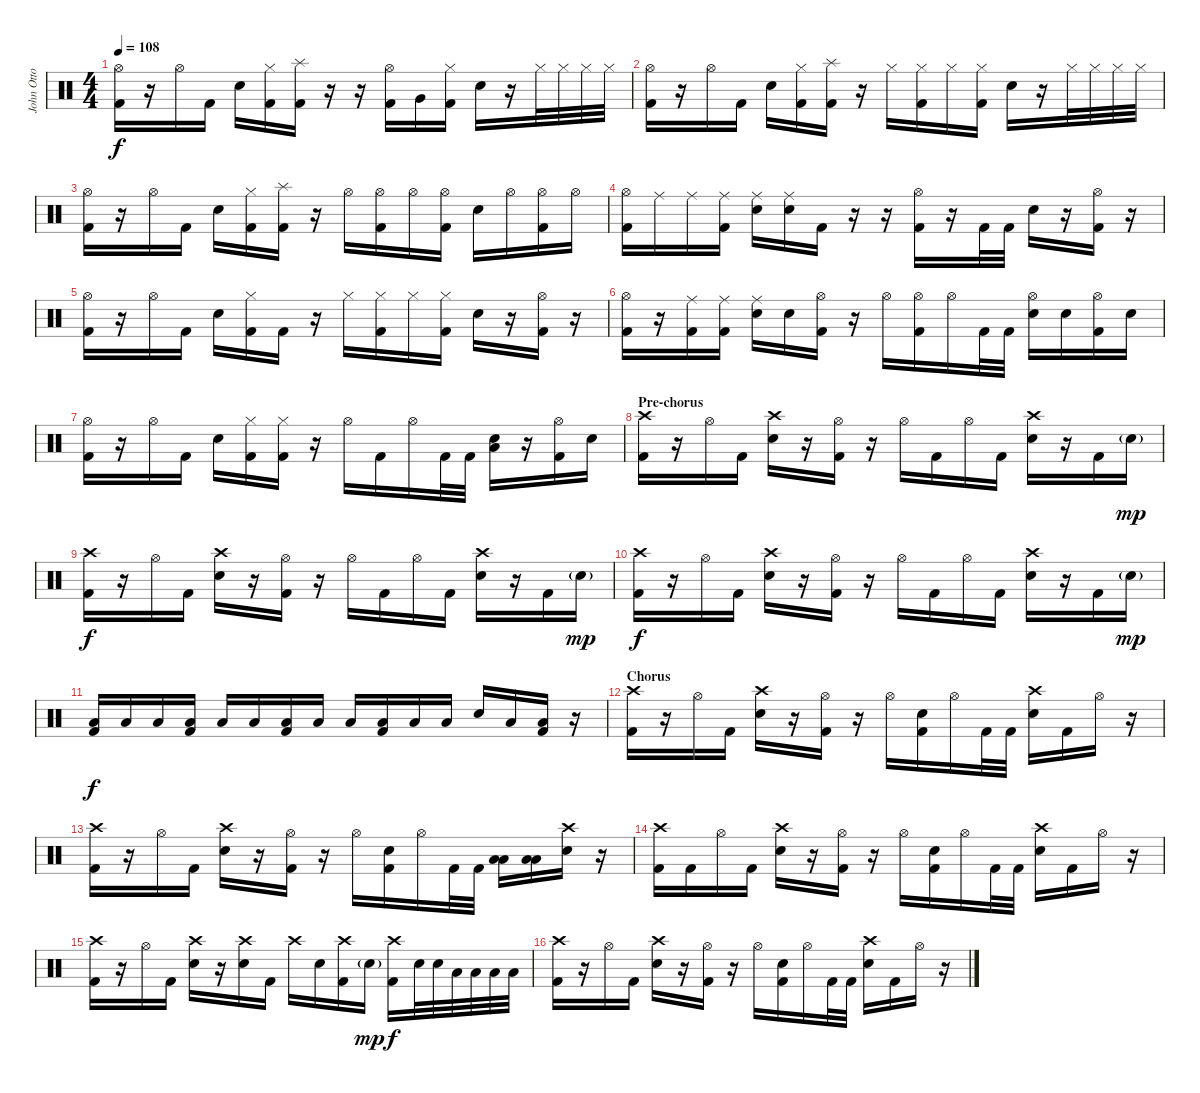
\track ("John Otto" "John Otto") {instrument percussion}
\staff {score}
\articulation defaults
\ts (4 4)
\tempo 108
\clef neutral
\ks c
("Hi-Hat (open)" "Kick (hit) 2").16{dy f} r.16 "Hi-Hat (open)".16 "Kick (hit) 2".16 "Snare (hit) 2".16 ("Hi-Hat (closed)" "Kick (hit) 2").16 ("Splash (hit)" "Kick (hit) 2").16 r.16 r.16 ("Hi-Hat (open)" "Kick (hit) 2").16 "Very Low Tom (hit)".16 ("Hi-Hat (closed)" "Kick (hit) 2").16 "Snare (hit) 2".16 r.16 "Hi-Hat (closed)".32 "Hi-Hat (closed)".32 "Hi-Hat (closed)".32 "Hi-Hat (closed)".32 |
("Hi-Hat (open)" "Kick (hit) 2").16 r.16 "Hi-Hat (open)".16 "Kick (hit) 2".16 "Snare (hit) 2".16 ("Hi-Hat (closed)" "Kick (hit) 2").16 ("Splash (hit)" "Kick (hit) 2").16 r.16 "Hi-Hat (closed)".16 ("Hi-Hat (closed)" "Kick (hit) 2").16 "Hi-Hat (closed)".16 ("Hi-Hat (closed)" "Kick (hit) 2").16 "Snare (hit) 2".16 r.16 "Hi-Hat (closed)".32 "Hi-Hat (closed)".32 "Hi-Hat (closed)".32 "Hi-Hat (closed)".32 |
("Hi-Hat (open)" "Kick (hit) 2").16 r.16 "Hi-Hat (open)".16 "Kick (hit) 2".16 "Snare (hit) 2".16 ("Hi-Hat (closed)" "Kick (hit) 2").16 ("Splash (hit)" "Kick (hit) 2").16 r.16 "Hi-Hat (open)".16 ("Hi-Hat (open)" "Kick (hit) 2").16 "Hi-Hat (open)".16 ("Hi-Hat (open)" "Kick (hit) 2").16 "Snare (hit) 2".16 "Hi-Hat (open)".16 ("Hi-Hat (open)" "Kick (hit) 2").16 "Hi-Hat (open)".16 |
("Hi-Hat (open)" "Kick (hit) 2").16 "Ride (middle)".16 "Ride (middle)".16 ("Ride (middle)" "Kick (hit) 2").16 ("Ride (middle)" "Snare (hit) 2").16 ("Ride (middle)" "Snare (hit) 2").16 "Kick (hit) 2".16 r.16 r.16 ("Hi-Hat (open)" "Kick (hit) 2").16 r.16 "Kick (hit) 2".32 "Kick (hit) 2".32 "Snare (hit) 2".16 r.16 ("Hi-Hat (open)" "Kick (hit) 2").16 r.16 |
("Hi-Hat (open)" "Kick (hit) 2").16 r.16 "Hi-Hat (open)".16 "Kick (hit) 2".16 "Snare (hit) 2".16 ("Hi-Hat (closed)" "Kick (hit) 2").16 "Kick (hit) 2".16 r.16 "Hi-Hat (closed)".16 ("Hi-Hat (closed)" "Kick (hit) 2").16 "Hi-Hat (closed)".16 ("Hi-Hat (closed)" "Kick (hit) 2").16 "Snare (hit) 2".16 r.16 ("Hi-Hat (open)" "Kick (hit) 2").16 r.16 |
("Hi-Hat (open)" "Kick (hit) 2").16 r.16 ("Ride (middle)" "Kick (hit) 2").16 ("Ride (middle)" "Kick (hit) 2").16 ("Ride (middle)" "Snare (hit) 2").16 "Snare (hit) 2".16 ("Hi-Hat (open)" "Kick (hit) 2").16 r.16 "Hi-Hat (open)".16 ("Hi-Hat (open)" "Kick (hit) 2").16 "Hi-Hat (open)".16 "Kick (hit) 2".32 "Kick (hit) 2".32 ("Hi-Hat (open)" "Snare (hit) 2").16 "Snare (hit) 2".16 ("Hi-Hat (open)" "Kick (hit) 2").16 "Snare (hit) 2".16 |
("Hi-Hat (open)" "Kick (hit) 2").16 r.16 "Hi-Hat (open)".16 "Kick (hit) 2".16 "Snare (hit) 2".16 ("Hi-Hat (closed)" "Kick (hit) 2").16 ("Hi-Hat (closed)" "Kick (hit) 2").16 r.16 "Hi-Hat (open)".16 "Kick (hit) 2".16 "Hi-Hat (open)".16 "Kick (hit) 2".32 "Kick (hit) 2".32 ("Snare (hit) 2" "Low Tom (hit)").16 r.16 ("Hi-Hat (open)" "Kick (hit) 2").16 "Snare (hit) 2".16 |
\section ("" "Pre-chorus")
("Crash high (hit)" "Kick (hit) 2").16 r.16 "Hi-Hat (open)".16 "Kick (hit) 2".16 ("Crash high (hit)" "Snare (hit) 2").16 r.16 ("Hi-Hat (open)" "Kick (hit) 2").16 r.16 "Hi-Hat (open)".16 "Kick (hit) 2".16 "Hi-Hat (open)".16 "Kick (hit) 2".16 ("Crash high (hit)" "Snare (hit) 2").16 r.16 "Kick (hit) 2".16 "Snare (hit) 2"{g}.16{dy mp} |
("Crash high (hit)" "Kick (hit) 2").16{dy f} r.16 "Hi-Hat (open)".16 "Kick (hit) 2".16 ("Crash high (hit)" "Snare (hit) 2").16 r.16 ("Hi-Hat (open)" "Kick (hit) 2").16 r.16 "Hi-Hat (open)".16 "Kick (hit) 2".16 "Hi-Hat (open)".16 "Kick (hit) 2".16 ("Crash high (hit)" "Snare (hit) 2").16 r.16 "Kick (hit) 2".16 "Snare (hit) 2"{g}.16{dy mp} |
("Crash high (hit)" "Kick (hit) 2").16{dy f} r.16 "Hi-Hat (open)".16 "Kick (hit) 2".16 ("Crash high (hit)" "Snare (hit) 2").16 r.16 ("Hi-Hat (open)" "Kick (hit) 2").16 r.16 "Hi-Hat (open)".16 "Kick (hit) 2".16 "Hi-Hat (open)".16 "Kick (hit) 2".16 ("Crash high (hit)" "Snare (hit) 2").16 r.16 "Kick (hit) 2".16 "Snare (hit) 2"{g}.16{dy mp} |
("Low Floor Tom (hit)" "Kick (hit) 2").16{dy f} "Low Tom (hit)".16 "Low Tom (hit)".16 ("Low Floor Tom (hit)" "Kick (hit) 2").16 "Low Tom (hit)".16 "Low Tom (hit)".16 ("Low Floor Tom (hit)" "Kick (hit) 2").16 "Low Tom (hit)".16 "Low Tom (hit)".16 ("Low Floor Tom (hit)" "Kick (hit) 2").16 "Low Tom (hit)".16 "Low Tom (hit)".16 "Snare (hit) 2".16 "Low Floor Tom (hit)".16 ("Low Tom (hit)" "Kick (hit) 2").16 r.16 |
\section ("" "Chorus")
("Crash high (hit)" "Kick (hit) 2").16 r.16 "Hi-Hat (open)".16 "Kick (hit) 2".16 ("Crash high (hit)" "Snare (hit) 2").16 r.16 ("Hi-Hat (open)" "Kick (hit) 2").16 r.16 "Hi-Hat (open)".16 ("Snare (hit) 2" "Kick (hit) 2").16 "Hi-Hat (open)".16 "Kick (hit) 2".32 "Kick (hit) 2".32 ("Crash high (hit)" "Snare (hit) 2").16 "Kick (hit) 2".16 "Hi-Hat (open)".16 r.16 |
("Crash high (hit)" "Kick (hit) 2").16 r.16 "Hi-Hat (open)".16 "Kick (hit) 2".16 ("Crash high (hit)" "Snare (hit) 2").16 r.16 ("Hi-Hat (open)" "Kick (hit) 2").16 r.16 "Hi-Hat (open)".16 ("Snare (hit) 2" "Kick (hit) 2").16 "Hi-Hat (open)".16 "Kick (hit) 2".32 "Kick (hit) 2".32 ("Low Floor Tom (hit)" "Low Tom (hit)").16 ("Low Floor Tom (hit)" "Low Tom (hit)").16 ("Crash high (hit)" "Snare (hit) 2").16 r.16 |
("Crash high (hit)" "Kick (hit) 2").16 "Kick (hit) 2".16 "Hi-Hat (open)".16 "Kick (hit) 2".16 ("Crash high (hit)" "Snare (hit) 2").16 r.16 ("Hi-Hat (open)" "Kick (hit) 2").16 r.16 "Hi-Hat (open)".16 ("Snare (hit) 2" "Kick (hit) 2").16 "Hi-Hat (open)".16 "Kick (hit) 2".32 "Kick (hit) 2".32 ("Crash high (hit)" "Snare (hit) 2").16 "Kick (hit) 2".16 "Hi-Hat (open)".16 r.16 |
("Crash high (hit)" "Kick (hit) 2").16 r.16 "Hi-Hat (open)".16 "Kick (hit) 2".16 ("Crash high (hit)" "Snare (hit) 2").16 r.16 ("Crash high (hit)" "Snare (hit) 2").16 "Kick (hit) 2".16 "Crash high (hit)".16 "Snare (hit) 2".16 ("Crash high (hit)" "Kick (hit) 2").16 "Snare (hit) 2"{g}.16{dy mp} ("Crash high (hit)" "Kick (hit) 2").16{dy f} "Snare (hit) 2".32 "Snare (hit) 2".32 "Low Floor Tom (hit)".32 "Low Floor Tom (hit)".32 "Low Floor Tom (hit)".32 "Low Floor Tom (hit)".32 |
("Crash high (hit)" "Kick (hit) 2").16 r.16 "Hi-Hat (open)".16 "Kick (hit) 2".16 ("Crash high (hit)" "Snare (hit) 2").16 r.16 ("Hi-Hat (open)" "Kick (hit) 2").16 r.16 "Hi-Hat (open)".16 ("Snare (hit) 2" "Kick (hit) 2").16 "Hi-Hat (open)".16 "Kick (hit) 2".32 "Kick (hit) 2".32 ("Crash high (hit)" "Snare (hit) 2").16 "Kick (hit) 2".16 "Hi-Hat (open)".16 r.16
